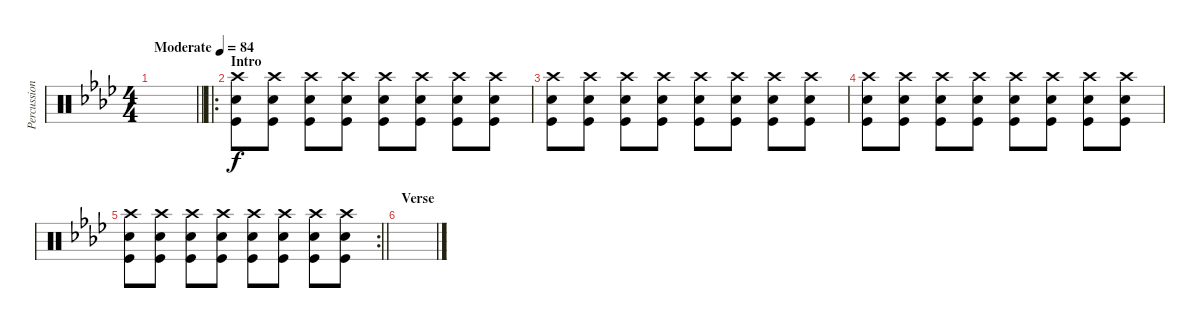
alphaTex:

\track ("Percussion" "Percussion") {instrument percussion}
\staff {score}
\articulation defaults
\ts (4 4)
\tempo (84 "Moderate")
\clef neutral
\barLineRight lightlight
\ks ab
|
\ro
\section ("" "Intro")
("Snare (hit) 2" "Kick (hit)" "Crash high (hit)").8 ("Snare (hit) 2" "Kick (hit)" "Crash high (hit)").8 ("Snare (hit) 2" "Kick (hit)" "Crash high (hit)").8 ("Snare (hit) 2" "Kick (hit)" "Crash high (hit)").8 ("Snare (hit) 2" "Kick (hit)" "Crash high (hit)").8 ("Snare (hit) 2" "Kick (hit)" "Crash high (hit)").8 ("Snare (hit) 2" "Kick (hit)" "Crash high (hit)").8 ("Snare (hit) 2" "Kick (hit)" "Crash high (hit)").8 |
("Snare (hit) 2" "Kick (hit)" "Crash high (hit)").8 ("Snare (hit) 2" "Kick (hit)" "Crash high (hit)").8 ("Snare (hit) 2" "Kick (hit)" "Crash high (hit)").8 ("Snare (hit) 2" "Kick (hit)" "Crash high (hit)").8 ("Snare (hit) 2" "Kick (hit)" "Crash high (hit)").8 ("Snare (hit) 2" "Kick (hit)" "Crash high (hit)").8 ("Snare (hit) 2" "Kick (hit)" "Crash high (hit)").8 ("Snare (hit) 2" "Kick (hit)" "Crash high (hit)").8 |
("Snare (hit) 2" "Kick (hit)" "Crash high (hit)").8 ("Snare (hit) 2" "Kick (hit)" "Crash high (hit)").8 ("Snare (hit) 2" "Kick (hit)" "Crash high (hit)").8 ("Snare (hit) 2" "Kick (hit)" "Crash high (hit)").8 ("Snare (hit) 2" "Kick (hit)" "Crash high (hit)").8 ("Snare (hit) 2" "Kick (hit)" "Crash high (hit)").8 ("Snare (hit) 2" "Kick (hit)" "Crash high (hit)").8 ("Snare (hit) 2" "Kick (hit)" "Crash high (hit)").8 |
\rc 2
\barLineRight lightlight
("Snare (hit) 2" "Kick (hit)" "Crash high (hit)").8 ("Snare (hit) 2" "Kick (hit)" "Crash high (hit)").8 ("Snare (hit) 2" "Kick (hit)" "Crash high (hit)").8 ("Snare (hit) 2" "Kick (hit)" "Crash high (hit)").8 ("Snare (hit) 2" "Kick (hit)" "Crash high (hit)").8 ("Snare (hit) 2" "Kick (hit)" "Crash high (hit)").8 ("Snare (hit) 2" "Kick (hit)" "Crash high (hit)").8 ("Snare (hit) 2" "Kick (hit)" "Crash high (hit)").8 |
\section ("" "Verse")
